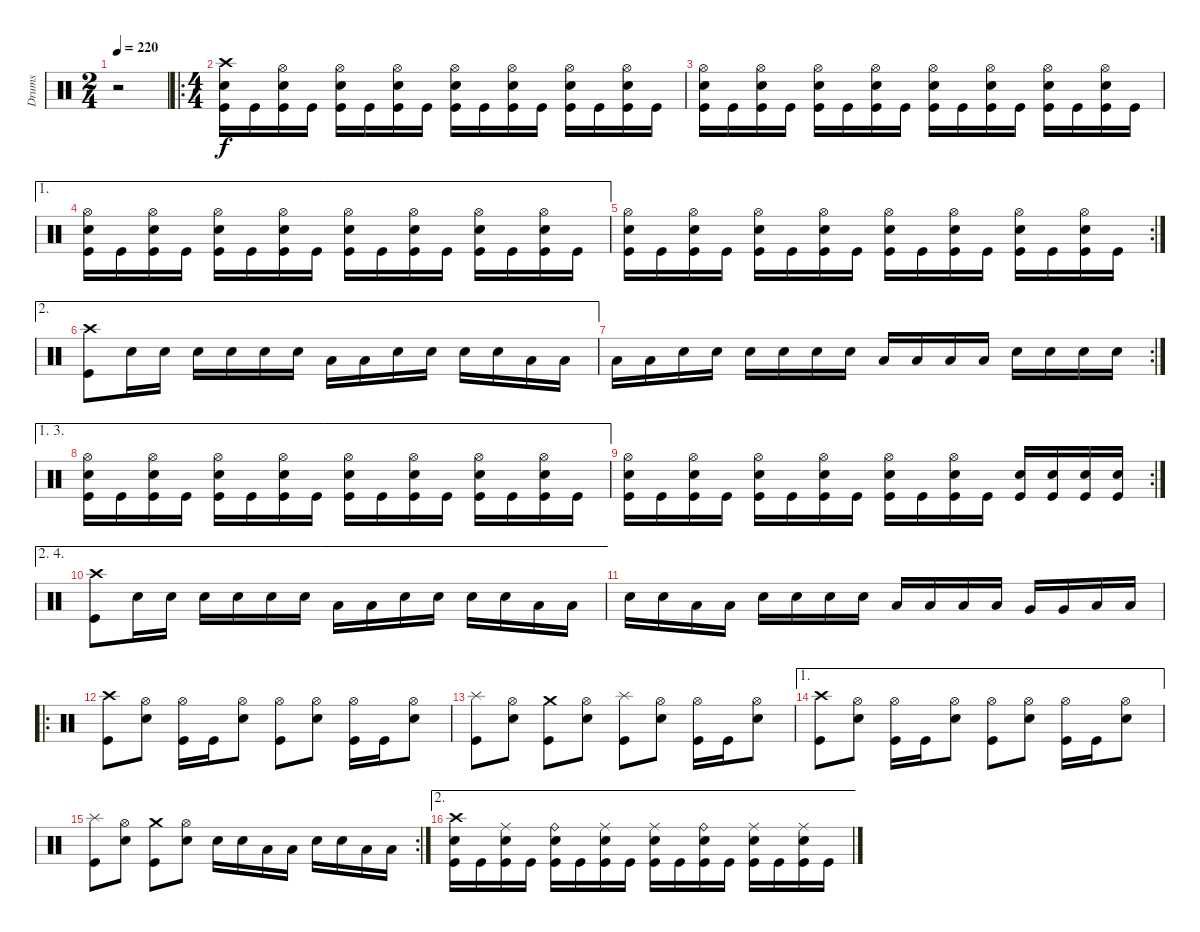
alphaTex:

\track ("Drums" "Drums") {instrument percussion}
\staff {score}
\articulation defaults
\ts (2 4)
\tempo 220
\clef neutral
\ks c
r.2{dy f} |
\ro
\ts (4 4)
("Crash high (hit)" "Electric Snare (hit)" "Kick (hit)").16 "Kick (hit)".16 ("Hi-Hat (open)" "Electric Snare (hit)" "Kick (hit)").16 "Kick (hit)".16 ("Hi-Hat (open)" "Electric Snare (hit)" "Kick (hit)").16 "Kick (hit)".16 ("Hi-Hat (open)" "Electric Snare (hit)" "Kick (hit)").16 "Kick (hit)".16 ("Hi-Hat (open)" "Electric Snare (hit)" "Kick (hit)").16 "Kick (hit)".16 ("Hi-Hat (open)" "Electric Snare (hit)" "Kick (hit)").16 "Kick (hit)".16 ("Hi-Hat (open)" "Electric Snare (hit)" "Kick (hit)").16 "Kick (hit)".16 ("Hi-Hat (open)" "Electric Snare (hit)" "Kick (hit)").16 "Kick (hit)".16 |
("Hi-Hat (open)" "Electric Snare (hit)" "Kick (hit)").16 "Kick (hit)".16 ("Hi-Hat (open)" "Electric Snare (hit)" "Kick (hit)").16 "Kick (hit)".16 ("Hi-Hat (open)" "Electric Snare (hit)" "Kick (hit)").16 "Kick (hit)".16 ("Hi-Hat (open)" "Electric Snare (hit)" "Kick (hit)").16 "Kick (hit)".16 ("Hi-Hat (open)" "Electric Snare (hit)" "Kick (hit)").16 "Kick (hit)".16 ("Hi-Hat (open)" "Electric Snare (hit)" "Kick (hit)").16 "Kick (hit)".16 ("Hi-Hat (open)" "Electric Snare (hit)" "Kick (hit)").16 "Kick (hit)".16 ("Hi-Hat (open)" "Electric Snare (hit)" "Kick (hit)").16 "Kick (hit)".16 |
\ae 1
("Hi-Hat (open)" "Electric Snare (hit)" "Kick (hit)").16 "Kick (hit)".16 ("Hi-Hat (open)" "Electric Snare (hit)" "Kick (hit)").16 "Kick (hit)".16 ("Hi-Hat (open)" "Electric Snare (hit)" "Kick (hit)").16 "Kick (hit)".16 ("Hi-Hat (open)" "Electric Snare (hit)" "Kick (hit)").16 "Kick (hit)".16 ("Hi-Hat (open)" "Electric Snare (hit)" "Kick (hit)").16 "Kick (hit)".16 ("Hi-Hat (open)" "Electric Snare (hit)" "Kick (hit)").16 "Kick (hit)".16 ("Hi-Hat (open)" "Electric Snare (hit)" "Kick (hit)").16 "Kick (hit)".16 ("Hi-Hat (open)" "Electric Snare (hit)" "Kick (hit)").16 "Kick (hit)".16 |
\rc 2
("Hi-Hat (open)" "Electric Snare (hit)" "Kick (hit)").16 "Kick (hit)".16 ("Hi-Hat (open)" "Electric Snare (hit)" "Kick (hit)").16 "Kick (hit)".16 ("Hi-Hat (open)" "Electric Snare (hit)" "Kick (hit)").16 "Kick (hit)".16 ("Hi-Hat (open)" "Electric Snare (hit)" "Kick (hit)").16 "Kick (hit)".16 ("Hi-Hat (open)" "Electric Snare (hit)" "Kick (hit)").16 "Kick (hit)".16 ("Hi-Hat (open)" "Electric Snare (hit)" "Kick (hit)").16 "Kick (hit)".16 ("Hi-Hat (open)" "Electric Snare (hit)" "Kick (hit)").16 "Kick (hit)".16 ("Hi-Hat (open)" "Electric Snare (hit)" "Kick (hit)").16 "Kick (hit)".16 |
\ae 2
("Crash high (hit)" "Kick (hit)").8 "Electric Snare (hit)".16 "Electric Snare (hit)".16 "Electric Snare (hit)".16 "Electric Snare (hit)".16 "Electric Snare (hit)".16 "Electric Snare (hit)".16 "Low Tom (hit)".16 "Low Tom (hit)".16 "Electric Snare (hit)".16 "Electric Snare (hit)".16 "Electric Snare (hit)".16 "Electric Snare (hit)".16 "Low Tom (hit)".16 "Low Tom (hit)".16 |
\rc 2 "Low Tom (hit)".16 "Low Tom (hit)".16 "Electric Snare (hit)".16 "Electric Snare (hit)".16 "Electric Snare (hit)".16 "Electric Snare (hit)".16 "Electric Snare (hit)".16 "Electric Snare (hit)".16 "Low Tom (hit)".16 "Low Tom (hit)".16 "Low Tom (hit)".16 "Low Tom (hit)".16 "Electric Snare (hit)".16 "Electric Snare (hit)".16 "Electric Snare (hit)".16 "Electric Snare (hit)".16
|
\ae (1 3)
("Hi-Hat (open)" "Electric Snare (hit)" "Kick (hit)").16 "Kick (hit)".16 ("Hi-Hat (open)" "Electric Snare (hit)" "Kick (hit)").16 "Kick (hit)".16 ("Hi-Hat (open)" "Electric Snare (hit)" "Kick (hit)").16 "Kick (hit)".16 ("Hi-Hat (open)" "Electric Snare (hit)" "Kick (hit)").16 "Kick (hit)".16 ("Hi-Hat (open)" "Electric Snare (hit)" "Kick (hit)").16 "Kick (hit)".16 ("Hi-Hat (open)" "Electric Snare (hit)" "Kick (hit)").16 "Kick (hit)".16 ("Hi-Hat (open)" "Electric Snare (hit)" "Kick (hit)").16 "Kick (hit)".16 ("Hi-Hat (open)" "Electric Snare (hit)" "Kick (hit)").16 "Kick (hit)".16 |
\rc 2
("Hi-Hat (open)" "Electric Snare (hit)" "Kick (hit)").16 "Kick (hit)".16 ("Hi-Hat (open)" "Electric Snare (hit)" "Kick (hit)").16 "Kick (hit)".16 ("Hi-Hat (open)" "Electric Snare (hit)" "Kick (hit)").16 "Kick (hit)".16 ("Hi-Hat (open)" "Electric Snare (hit)" "Kick (hit)").16 "Kick (hit)".16 ("Hi-Hat (open)" "Electric Snare (hit)" "Kick (hit)").16 "Kick (hit)".16 ("Hi-Hat (open)" "Electric Snare (hit)" "Kick (hit)").16 "Kick (hit)".16 ("Electric Snare (hit)" "Kick (hit)").16 ("Electric Snare (hit)" "Kick (hit)").16 ("Electric Snare (hit)" "Kick (hit)").16 ("Electric Snare (hit)" "Kick (hit)").16 |
\ae (2 4)
("Crash high (hit)" "Kick (hit)").8 "Electric Snare (hit)".16 "Electric Snare (hit)".16 "Electric Snare (hit)".16 "Electric Snare (hit)".16 "Electric Snare (hit)".16 "Electric Snare (hit)".16 "Low Tom (hit)".16 "Low Tom (hit)".16 "Electric Snare (hit)".16 "Electric Snare (hit)".16 "Electric Snare (hit)".16 "Electric Snare (hit)".16 "Low Tom (hit)".16 "Low Tom (hit)".16 |
"Electric Snare (hit)".16 "Electric Snare (hit)".16 "Low Tom (hit)".16 "Low Tom (hit)".16 "Electric Snare (hit)".16 "Electric Snare (hit)".16 "Electric Snare (hit)".16 "Electric Snare (hit)".16 "Low Tom (hit)".16 "Low Tom (hit)".16 "Low Tom (hit)".16 "Low Tom (hit)".16 "Very Low Tom (hit)".16 "Very Low Tom (hit)".16 "Low Floor Tom (hit)".16 "Low Floor Tom (hit)".16 |
\ro
("Crash high (hit)" "Kick (hit)").8 ("Hi-Hat (open)" "Electric Snare (hit)").8 ("Hi-Hat (open)" "Kick (hit)").16 "Kick (hit)".16 ("Hi-Hat (open)" "Electric Snare (hit)").8 ("Hi-Hat (open)" "Kick (hit)").8 ("Hi-Hat (open)" "Electric Snare (hit)").8 ("Hi-Hat (open)" "Kick (hit)").16 "Kick (hit)".16 ("Hi-Hat (open)" "Electric Snare (hit)").8 |
("Splash (hit)" "Kick (hit)").8 ("Hi-Hat (open)" "Electric Snare (hit)").8 ("Crash medium (hit)" "Kick (hit)").8 ("Hi-Hat (open)" "Electric Snare (hit)").8 ("Splash (hit)" "Kick (hit)").8 ("Hi-Hat (open)" "Electric Snare (hit)").8 ("Hi-Hat (open)" "Kick (hit)").16 "Kick (hit)".16 ("Hi-Hat (open)" "Electric Snare (hit)").8 |
\ae 1
("Crash high (hit)" "Kick (hit)").8 ("Hi-Hat (open)" "Electric Snare (hit)").8 ("Hi-Hat (open)" "Kick (hit)").16 "Kick (hit)".16 ("Hi-Hat (open)" "Electric Snare (hit)").8 ("Hi-Hat (open)" "Kick (hit)").8 ("Hi-Hat (open)" "Electric Snare (hit)").8 ("Hi-Hat (open)" "Kick (hit)").16 "Kick (hit)".16 ("Hi-Hat (open)" "Electric Snare (hit)").8 |
\rc 2
("Splash (hit)" "Kick (hit)").8 ("Hi-Hat (open)" "Electric Snare (hit)").8 ("Crash medium (hit)" "Kick (hit)").8 ("Hi-Hat (open)" "Electric Snare (hit)").8 "Electric Snare (hit)".16 "Electric Snare (hit)".16 "Low Tom (hit)".16 "Low Tom (hit)".16 "Electric Snare (hit)".16 "Electric Snare (hit)".16 "Low Tom (hit)".16 "Low Tom (hit)".16 |
\ae 2
("Crash high (hit)" "Electric Snare (hit)" "Kick (hit)").16 "Kick (hit)".16 ("Ride (middle)" "Electric Snare (hit)" "Kick (hit)").16 "Kick (hit)".16 ("Ride (bell)" "Electric Snare (hit)" "Kick (hit)").16 "Kick (hit)".16 ("Ride (middle)" "Electric Snare (hit)" "Kick (hit)").16 "Kick (hit)".16 ("Ride (middle)" "Electric Snare (hit)" "Kick (hit)").16 "Kick (hit)".16 ("Ride (bell)" "Electric Snare (hit)" "Kick (hit)").16 "Kick (hit)".16 ("Ride (middle)" "Electric Snare (hit)" "Kick (hit)").16 "Kick (hit)".16 ("Ride (middle)" "Electric Snare (hit)" "Kick (hit)").16 "Kick (hit)".16
